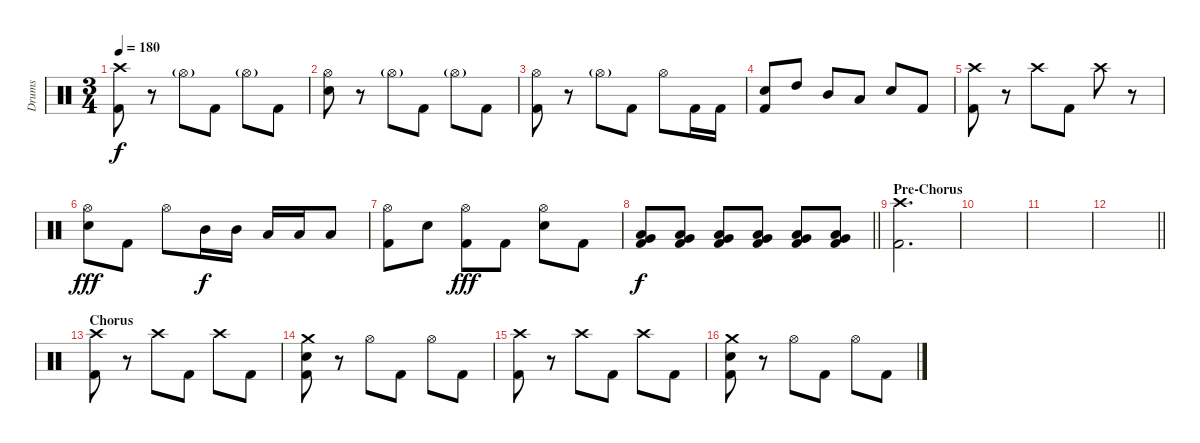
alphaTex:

\track ("Drums" "Drums") {instrument percussion}
\staff {score}
\articulation defaults
\ts (3 4)
\tempo 180
\clef neutral
\ks c
("Crash high (hit)" "Kick (hit) 2").8{dy f} r.8 "Hi-Hat (open)"{g}.8 "Kick (hit) 2".8 "Hi-Hat (open)"{g}.8 "Kick (hit) 2".8 |
("Hi-Hat (open)" "Electric Snare (hit)").8 r.8 "Hi-Hat (open)"{g}.8 "Kick (hit) 2".8 "Hi-Hat (open)"{g}.8 "Kick (hit) 2".8 |
("Hi-Hat (open)" "Kick (hit) 2").8 r.8 "Hi-Hat (open)"{g}.8 "Kick (hit) 2".8 "Hi-Hat (open)".8 "Kick (hit) 2".16 "Kick (hit) 2".16 |
("Electric Snare (hit)" "Kick (hit) 2").8 "High Tom (hit)".8 "Mid Tom (hit)".8 "Low Tom (hit)".8 "Electric Snare (hit)".8 "Kick (hit) 2".8 |
("Crash high (hit)" "Kick (hit) 2").8 r.8 "Crash high (hit)".8 "Kick (hit) 2".8 "Crash high (hit)".8 r.8 |
("Hi-Hat (open)" "Electric Snare (hit)").8{dy fff} "Kick (hit) 2".8 "Hi-Hat (open)".8 "Mid Tom (hit)".16{dy f} "Mid Tom (hit)".16 "Low Tom (hit)".16 "Low Tom (hit)".16 "Low Floor Tom (hit)".8 |
("Hi-Hat (open)" "Kick (hit) 2").8 "Electric Snare (hit)".8 ("Hi-Hat (open)" "Kick (hit) 2").8{dy fff} "Kick (hit) 2".8 ("Hi-Hat (open)" "Electric Snare (hit)").8 "Kick (hit) 2".8 |
\barLineRight lightlight
("Low Floor Tom (hit)" "Very Low Tom (hit)" "Kick (hit) 2").8{dy f} ("Low Floor Tom (hit)" "Very Low Tom (hit)" "Kick (hit) 2").8 ("Low Floor Tom (hit)" "Very Low Tom (hit)" "Kick (hit) 2").8 ("Low Floor Tom (hit)" "Very Low Tom (hit)" "Kick (hit) 2").8 ("Low Floor Tom (hit)" "Very Low Tom (hit)" "Kick (hit) 2").8 ("Low Floor Tom (hit)" "Very Low Tom (hit)" "Kick (hit) 2").8 |
\section ("" "Pre-Chorus")
("Crash high (hit)" "Kick (hit) 2").2{d} |
|
|
\barLineRight lightlight
|
\section ("" "Chorus")
("Crash high (hit)" "Kick (hit) 2").8 r.8 "Crash high (hit)".8 "Kick (hit) 2".8 "Crash high (hit)".8 "Kick (hit) 2".8 |
("Crash medium (hit)" "Electric Snare (hit)" "Kick (hit) 2").8 r.8 "Hi-Hat (open)".8 "Kick (hit) 2".8 "Hi-Hat (open)".8 "Kick (hit) 2".8 |
("Crash high (hit)" "Kick (hit) 2").8 r.8 "Crash high (hit)".8 "Kick (hit) 2".8 "Crash high (hit)".8 "Kick (hit) 2".8 |
("Crash medium (hit)" "Electric Snare (hit)" "Kick (hit) 2").8 r.8 "Hi-Hat (open)".8 "Kick (hit) 2".8 "Hi-Hat (open)".8 "Kick (hit) 2".8
